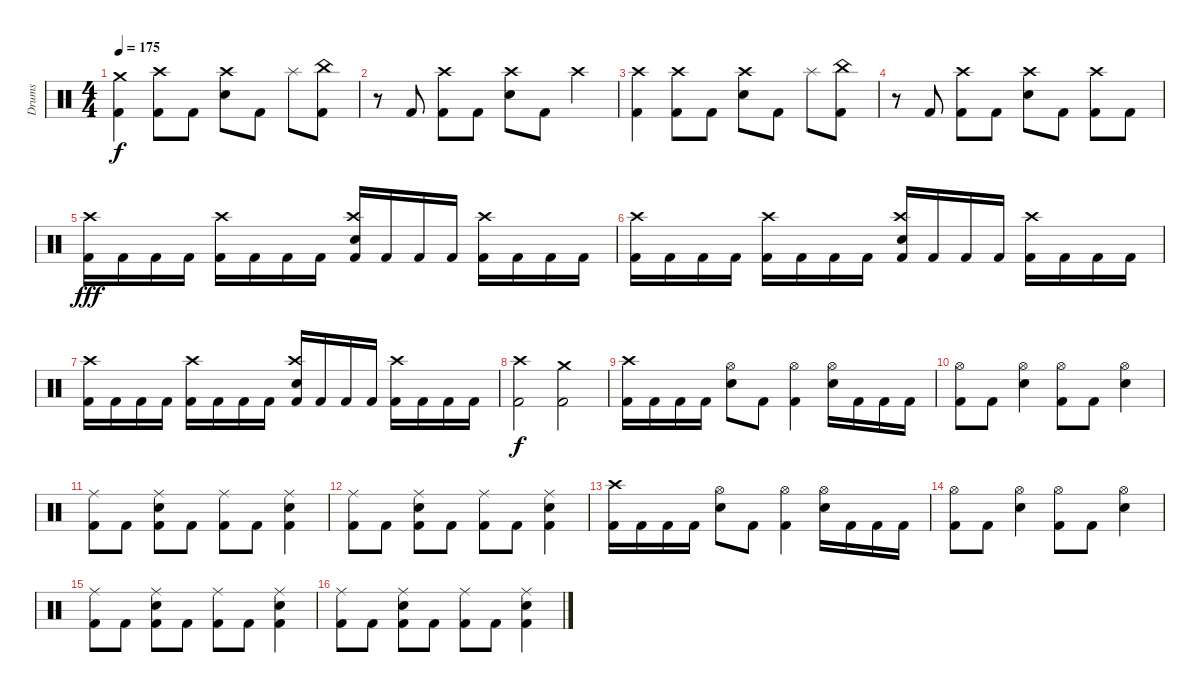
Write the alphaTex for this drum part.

\track ("Drums" "Drums") {instrument percussion}
\staff {score}
\articulation defaults
\ts (4 4)
\tempo 175
\clef neutral
\ks c
("Crash medium (hit)" "Kick (hit) 2").4{dy f} ("Crash high (hit)" "Kick (hit) 2").8 "Kick (hit) 2".8 ("Crash high (hit)" "Electric Snare (hit)").8 "Kick (hit) 2".8 "Splash (hit)".8 ("China (hit)" "Kick (hit) 2").8 |
r.8 "Kick (hit) 2".8 ("Crash high (hit)" "Kick (hit) 2").8 "Kick (hit) 2".8 ("Crash high (hit)" "Electric Snare (hit)").8 "Kick (hit) 2".8 "Crash high (hit)".4 |
("Crash high (hit)" "Kick (hit) 2").4 ("Crash high (hit)" "Kick (hit) 2").8 "Kick (hit) 2".8 ("Crash high (hit)" "Electric Snare (hit)").8 "Kick (hit) 2".8 "Splash (hit)".8 ("China (hit)" "Kick (hit) 2").8 |
r.8 "Kick (hit) 2".8 ("Crash high (hit)" "Kick (hit) 2").8 "Kick (hit) 2".8 ("Crash high (hit)" "Electric Snare (hit)").8 "Kick (hit) 2".8 ("Crash high (hit)" "Kick (hit) 2").8 "Kick (hit) 2".8 |
("Crash high (hit)" "Kick (hit) 2").16{dy fff} "Kick (hit) 2".16 "Kick (hit) 2".16 "Kick (hit) 2".16 ("Crash high (hit)" "Kick (hit) 2").16 "Kick (hit) 2".16 "Kick (hit) 2".16 "Kick (hit) 2".16 ("Crash high (hit)" "Electric Snare (hit)" "Kick (hit) 2").16 "Kick (hit) 2".16 "Kick (hit) 2".16 "Kick (hit) 2".16 ("Crash high (hit)" "Kick (hit) 2").16 "Kick (hit) 2".16 "Kick (hit) 2".16 "Kick (hit) 2".16 |
("Crash high (hit)" "Kick (hit) 2").16 "Kick (hit) 2".16 "Kick (hit) 2".16 "Kick (hit) 2".16 ("Crash high (hit)" "Kick (hit) 2").16 "Kick (hit) 2".16 "Kick (hit) 2".16 "Kick (hit) 2".16 ("Crash high (hit)" "Electric Snare (hit)" "Kick (hit) 2").16 "Kick (hit) 2".16 "Kick (hit) 2".16 "Kick (hit) 2".16 ("Crash high (hit)" "Kick (hit) 2").16 "Kick (hit) 2".16 "Kick (hit) 2".16 "Kick (hit) 2".16 |
("Crash high (hit)" "Kick (hit) 2").16 "Kick (hit) 2".16 "Kick (hit) 2".16 "Kick (hit) 2".16 ("Crash high (hit)" "Kick (hit) 2").16 "Kick (hit) 2".16 "Kick (hit) 2".16 "Kick (hit) 2".16 ("Crash high (hit)" "Electric Snare (hit)" "Kick (hit) 2").16 "Kick (hit) 2".16 "Kick (hit) 2".16 "Kick (hit) 2".16 ("Crash high (hit)" "Kick (hit) 2").16 "Kick (hit) 2".16 "Kick (hit) 2".16 "Kick (hit) 2".16 |
("Crash high (hit)" "Kick (hit) 2").2{dy f} ("Crash medium (hit)" "Kick (hit) 2").2 |
("Crash high (hit)" "Kick (hit) 2").16 "Kick (hit) 2".16 "Kick (hit) 2".16 "Kick (hit) 2".16 ("Hi-Hat (open)" "Electric Snare (hit)").8 "Kick (hit) 2".8 ("Hi-Hat (open)" "Kick (hit) 2").4 ("Hi-Hat (open)" "Electric Snare (hit)").16 "Kick (hit) 2".16 "Kick (hit) 2".16 "Kick (hit) 2".16 |
("Hi-Hat (open)" "Kick (hit) 2").8 "Kick (hit) 2".8 ("Hi-Hat (open)" "Electric Snare (hit)").4 ("Hi-Hat (open)" "Kick (hit) 2").8 "Kick (hit) 2".8 ("Hi-Hat (open)" "Electric Snare (hit)").4 |
("Ride (middle)" "Kick (hit) 2").8 "Kick (hit) 2".8 ("Ride (middle)" "Electric Snare (hit)" "Kick (hit) 2").8 "Kick (hit) 2".8 ("Ride (middle)" "Kick (hit) 2").8 "Kick (hit) 2".8 ("Ride (middle)" "Electric Snare (hit)" "Kick (hit) 2").4 |
("Ride (middle)" "Kick (hit) 2").8 "Kick (hit) 2".8 ("Ride (middle)" "Electric Snare (hit)" "Kick (hit) 2").8 "Kick (hit) 2".8 ("Ride (middle)" "Kick (hit) 2").8 "Kick (hit) 2".8 ("Ride (middle)" "Electric Snare (hit)" "Kick (hit) 2").4 |
("Crash high (hit)" "Kick (hit) 2").16 "Kick (hit) 2".16 "Kick (hit) 2".16 "Kick (hit) 2".16 ("Hi-Hat (open)" "Electric Snare (hit)").8 "Kick (hit) 2".8 ("Hi-Hat (open)" "Kick (hit) 2").4 ("Hi-Hat (open)" "Electric Snare (hit)").16 "Kick (hit) 2".16 "Kick (hit) 2".16 "Kick (hit) 2".16 |
("Hi-Hat (open)" "Kick (hit) 2").8 "Kick (hit) 2".8 ("Hi-Hat (open)" "Electric Snare (hit)").4 ("Hi-Hat (open)" "Kick (hit) 2").8 "Kick (hit) 2".8 ("Hi-Hat (open)" "Electric Snare (hit)").4 |
("Ride (middle)" "Kick (hit) 2").8 "Kick (hit) 2".8 ("Ride (middle)" "Electric Snare (hit)" "Kick (hit) 2").8 "Kick (hit) 2".8 ("Ride (middle)" "Kick (hit) 2").8 "Kick (hit) 2".8 ("Ride (middle)" "Electric Snare (hit)" "Kick (hit) 2").4 |
("Ride (middle)" "Kick (hit) 2").8 "Kick (hit) 2".8 ("Ride (middle)" "Electric Snare (hit)" "Kick (hit) 2").8 "Kick (hit) 2".8 ("Ride (middle)" "Kick (hit) 2").8 "Kick (hit) 2".8 ("Ride (middle)" "Electric Snare (hit)" "Kick (hit) 2").4
